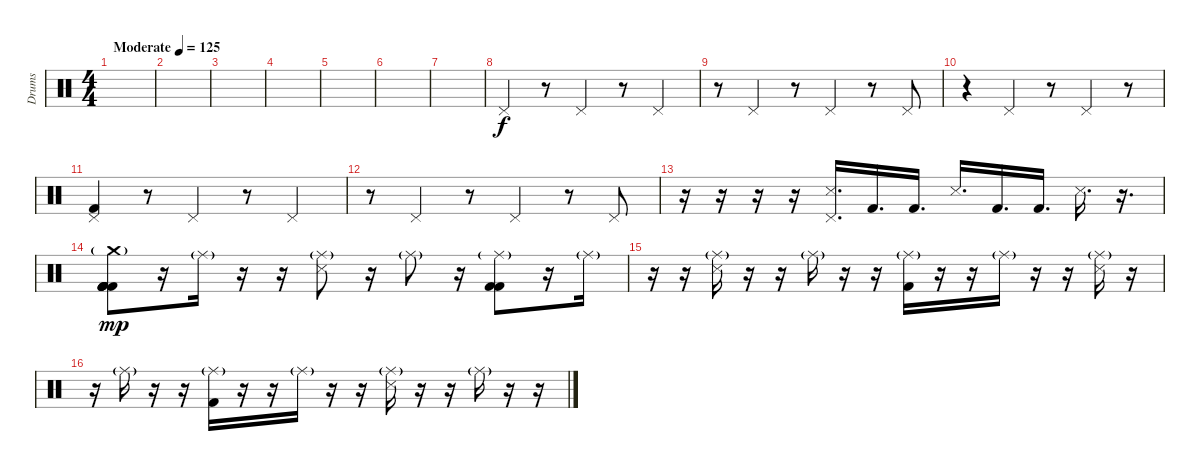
\track ("Drums" "Drums") {instrument percussion}
\staff {score}
\articulation defaults
\ts (4 4)
\tempo (125 "Moderate")
\clef neutral
\ks c
|
|
|
|
|
|
|
"Pedal Hi-Hat (hit)".4 r.8 "Pedal Hi-Hat (hit)".4 r.8 "Pedal Hi-Hat (hit)".4 |
r.8 "Pedal Hi-Hat (hit)".4 r.8 "Pedal Hi-Hat (hit)".4 r.8 "Pedal Hi-Hat (hit)".8 |
r.4 "Pedal Hi-Hat (hit)".4 r.8 "Pedal Hi-Hat (hit)".4 r.8 |
("Kick (hit) 2" "Pedal Hi-Hat (hit)").4 r.8 "Pedal Hi-Hat (hit)".4 r.8 "Pedal Hi-Hat (hit)".4 |
r.8 "Pedal Hi-Hat (hit)".4 r.8 "Pedal Hi-Hat (hit)".4 r.8 "Pedal Hi-Hat (hit)".8 |
r.16 r.16 r.16 r.16 ("Snare (side stick) 3" "Pedal Hi-Hat (hit)").16{d} "Kick (hit) 2".16{d} "Kick (hit) 2".16{d} "Snare (side stick) 3".16{d} "Kick (hit) 2".16{d} "Kick (hit) 2".16{d} "Snare (side stick) 3".16{d} r.16{d} |
("Kick (hit) 2" "Kick (hit) 2" "Kick (hit) 2" "Kick (hit) 2" "Kick (hit) 2" "Crash medium (hit)"{g}).8{dy mp} r.16 "Ride (middle)"{g}.16 r.16 r.16 ("Snare (side stick) 3" "Ride (middle)"{g}).8 r.16 "Ride (middle)"{g}.8 r.16 ("Kick (hit) 2" "Kick (hit) 2" "Ride (middle)"{g}).8 r.16 "Ride (middle)"{g}.16 |
r.16 r.16 ("Snare (side stick) 3" "Ride (middle)"{g}).16 r.16 r.16 "Ride (middle)"{g}.16 r.16 r.16 ("Kick (hit) 2" "Ride (middle)"{g}).16 r.16 r.16 "Ride (middle)"{g}.16 r.16 r.16 ("Snare (side stick) 3" "Ride (middle)"{g}).16 r.16 |
r.16 "Ride (middle)"{g}.16 r.16 r.16 ("Kick (hit) 2" "Ride (middle)"{g}).16 r.16 r.16 "Ride (middle)"{g}.16 r.16 r.16 ("Snare (side stick) 3" "Ride (middle)"{g}).16 r.16 r.16 "Ride (middle)"{g}.16 r.16 r.16
